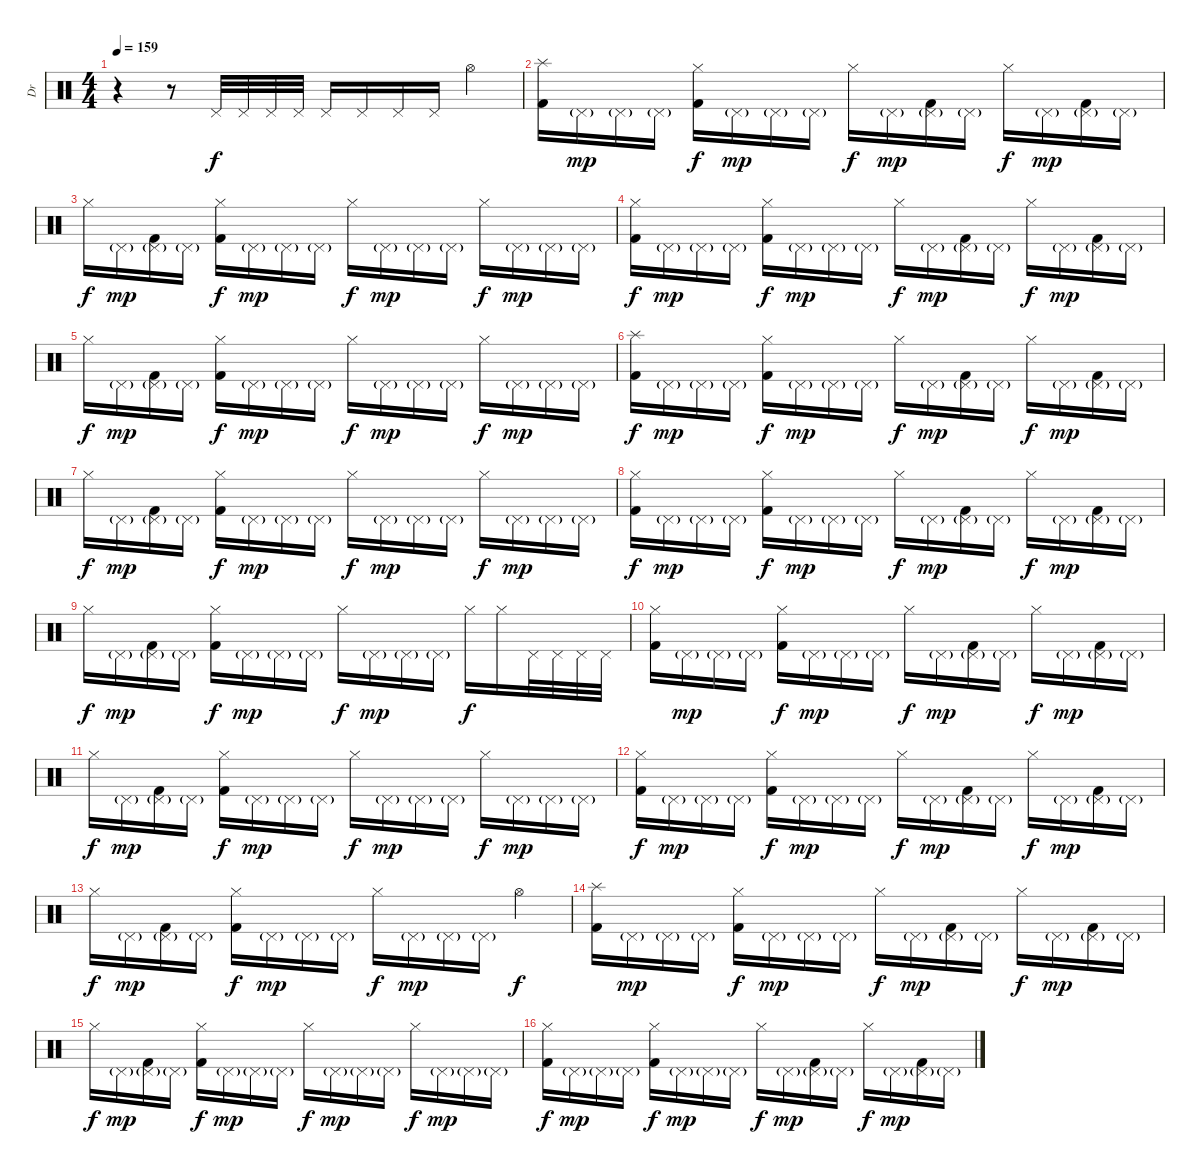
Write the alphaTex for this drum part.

\track ("Dr" "Dr") {instrument percussion}
\staff {score}
\articulation defaults
\ts (4 4)
\tempo 159
\clef neutral
\ks c
r.4{dy f} r.8 "Pedal Hi-Hat (hit)".32 "Pedal Hi-Hat (hit)".32 "Pedal Hi-Hat (hit)".32 "Pedal Hi-Hat (hit)".32 "Pedal Hi-Hat (hit)".16 "Pedal Hi-Hat (hit)".16 "Pedal Hi-Hat (hit)".16 "Pedal Hi-Hat (hit)".16 "Hi-Hat (open)".4 |
("Splash (hit)" "Kick (hit) 2").16 "Pedal Hi-Hat (hit)"{g}.16{dy mp} "Pedal Hi-Hat (hit)"{g}.16 "Pedal Hi-Hat (hit)"{g}.16 ("Hi-Hat (closed)" "Kick (hit) 2").16{dy f} "Pedal Hi-Hat (hit)"{g}.16{dy mp} "Pedal Hi-Hat (hit)"{g}.16 "Pedal Hi-Hat (hit)"{g}.16 "Hi-Hat (closed)".16{dy f} "Pedal Hi-Hat (hit)"{g}.16{dy mp} ("Pedal Hi-Hat (hit)"{g} "Kick (hit) 2").16 "Pedal Hi-Hat (hit)"{g}.16 "Hi-Hat (closed)".16{dy f} "Pedal Hi-Hat (hit)"{g}.16{dy mp} ("Pedal Hi-Hat (hit)"{g} "Kick (hit) 2").16 "Pedal Hi-Hat (hit)"{g}.16 |
"Hi-Hat (closed)".16{dy f} "Pedal Hi-Hat (hit)"{g}.16{dy mp} ("Pedal Hi-Hat (hit)"{g} "Kick (hit) 2").16 "Pedal Hi-Hat (hit)"{g}.16 ("Hi-Hat (closed)" "Kick (hit) 2").16{dy f} "Pedal Hi-Hat (hit)"{g}.16{dy mp} "Pedal Hi-Hat (hit)"{g}.16 "Pedal Hi-Hat (hit)"{g}.16 "Hi-Hat (closed)".16{dy f} "Pedal Hi-Hat (hit)"{g}.16{dy mp} "Pedal Hi-Hat (hit)"{g}.16 "Pedal Hi-Hat (hit)"{g}.16 "Hi-Hat (closed)".16{dy f} "Pedal Hi-Hat (hit)"{g}.16{dy mp} "Pedal Hi-Hat (hit)"{g}.16 "Pedal Hi-Hat (hit)"{g}.16 |
("Hi-Hat (closed)" "Kick (hit) 2").16{dy f} "Pedal Hi-Hat (hit)"{g}.16{dy mp} "Pedal Hi-Hat (hit)"{g}.16 "Pedal Hi-Hat (hit)"{g}.16 ("Hi-Hat (closed)" "Kick (hit) 2").16{dy f} "Pedal Hi-Hat (hit)"{g}.16{dy mp} "Pedal Hi-Hat (hit)"{g}.16 "Pedal Hi-Hat (hit)"{g}.16 "Hi-Hat (closed)".16{dy f} "Pedal Hi-Hat (hit)"{g}.16{dy mp} ("Pedal Hi-Hat (hit)"{g} "Kick (hit) 2").16 "Pedal Hi-Hat (hit)"{g}.16 "Hi-Hat (closed)".16{dy f} "Pedal Hi-Hat (hit)"{g}.16{dy mp} ("Pedal Hi-Hat (hit)"{g} "Kick (hit) 2").16 "Pedal Hi-Hat (hit)"{g}.16 |
"Hi-Hat (closed)".16{dy f} "Pedal Hi-Hat (hit)"{g}.16{dy mp} ("Pedal Hi-Hat (hit)"{g} "Kick (hit) 2").16 "Pedal Hi-Hat (hit)"{g}.16 ("Hi-Hat (closed)" "Kick (hit) 2").16{dy f} "Pedal Hi-Hat (hit)"{g}.16{dy mp} "Pedal Hi-Hat (hit)"{g}.16 "Pedal Hi-Hat (hit)"{g}.16 "Hi-Hat (closed)".16{dy f} "Pedal Hi-Hat (hit)"{g}.16{dy mp} "Pedal Hi-Hat (hit)"{g}.16 "Pedal Hi-Hat (hit)"{g}.16 "Hi-Hat (closed)".16{dy f} "Pedal Hi-Hat (hit)"{g}.16{dy mp} "Pedal Hi-Hat (hit)"{g}.16 "Pedal Hi-Hat (hit)"{g}.16 |
("Splash (hit)" "Kick (hit) 2").16{dy f} "Pedal Hi-Hat (hit)"{g}.16{dy mp} "Pedal Hi-Hat (hit)"{g}.16 "Pedal Hi-Hat (hit)"{g}.16 ("Hi-Hat (closed)" "Kick (hit) 2").16{dy f} "Pedal Hi-Hat (hit)"{g}.16{dy mp} "Pedal Hi-Hat (hit)"{g}.16 "Pedal Hi-Hat (hit)"{g}.16 "Hi-Hat (closed)".16{dy f} "Pedal Hi-Hat (hit)"{g}.16{dy mp} ("Pedal Hi-Hat (hit)"{g} "Kick (hit) 2").16 "Pedal Hi-Hat (hit)"{g}.16 "Hi-Hat (closed)".16{dy f} "Pedal Hi-Hat (hit)"{g}.16{dy mp} ("Pedal Hi-Hat (hit)"{g} "Kick (hit) 2").16 "Pedal Hi-Hat (hit)"{g}.16 |
"Hi-Hat (closed)".16{dy f} "Pedal Hi-Hat (hit)"{g}.16{dy mp} ("Pedal Hi-Hat (hit)"{g} "Kick (hit) 2").16 "Pedal Hi-Hat (hit)"{g}.16 ("Hi-Hat (closed)" "Kick (hit) 2").16{dy f} "Pedal Hi-Hat (hit)"{g}.16{dy mp} "Pedal Hi-Hat (hit)"{g}.16 "Pedal Hi-Hat (hit)"{g}.16 "Hi-Hat (closed)".16{dy f} "Pedal Hi-Hat (hit)"{g}.16{dy mp} "Pedal Hi-Hat (hit)"{g}.16 "Pedal Hi-Hat (hit)"{g}.16 "Hi-Hat (closed)".16{dy f} "Pedal Hi-Hat (hit)"{g}.16{dy mp} "Pedal Hi-Hat (hit)"{g}.16 "Pedal Hi-Hat (hit)"{g}.16 |
("Hi-Hat (closed)" "Kick (hit) 2").16{dy f} "Pedal Hi-Hat (hit)"{g}.16{dy mp} "Pedal Hi-Hat (hit)"{g}.16 "Pedal Hi-Hat (hit)"{g}.16 ("Hi-Hat (closed)" "Kick (hit) 2").16{dy f} "Pedal Hi-Hat (hit)"{g}.16{dy mp} "Pedal Hi-Hat (hit)"{g}.16 "Pedal Hi-Hat (hit)"{g}.16 "Hi-Hat (closed)".16{dy f} "Pedal Hi-Hat (hit)"{g}.16{dy mp} ("Pedal Hi-Hat (hit)"{g} "Kick (hit) 2").16 "Pedal Hi-Hat (hit)"{g}.16 "Hi-Hat (closed)".16{dy f} "Pedal Hi-Hat (hit)"{g}.16{dy mp} ("Pedal Hi-Hat (hit)"{g} "Kick (hit) 2").16 "Pedal Hi-Hat (hit)"{g}.16 |
"Hi-Hat (closed)".16{dy f} "Pedal Hi-Hat (hit)"{g}.16{dy mp} ("Pedal Hi-Hat (hit)"{g} "Kick (hit) 2").16 "Pedal Hi-Hat (hit)"{g}.16 ("Hi-Hat (closed)" "Kick (hit) 2").16{dy f} "Pedal Hi-Hat (hit)"{g}.16{dy mp} "Pedal Hi-Hat (hit)"{g}.16 "Pedal Hi-Hat (hit)"{g}.16 "Hi-Hat (closed)".16{dy f} "Pedal Hi-Hat (hit)"{g}.16{dy mp} "Pedal Hi-Hat (hit)"{g}.16 "Pedal Hi-Hat (hit)"{g}.16 "Hi-Hat (closed)".16{dy f} "Hi-Hat (closed)".16 "Pedal Hi-Hat (hit)".32 "Pedal Hi-Hat (hit)".32 "Pedal Hi-Hat (hit)".32 "Pedal Hi-Hat (hit)".32 |
("Hi-Hat (closed)" "Kick (hit) 2").16 "Pedal Hi-Hat (hit)"{g}.16{dy mp} "Pedal Hi-Hat (hit)"{g}.16 "Pedal Hi-Hat (hit)"{g}.16 ("Hi-Hat (closed)" "Kick (hit) 2").16{dy f} "Pedal Hi-Hat (hit)"{g}.16{dy mp} "Pedal Hi-Hat (hit)"{g}.16 "Pedal Hi-Hat (hit)"{g}.16 "Hi-Hat (closed)".16{dy f} "Pedal Hi-Hat (hit)"{g}.16{dy mp} ("Pedal Hi-Hat (hit)"{g} "Kick (hit) 2").16 "Pedal Hi-Hat (hit)"{g}.16 "Hi-Hat (closed)".16{dy f} "Pedal Hi-Hat (hit)"{g}.16{dy mp} ("Pedal Hi-Hat (hit)"{g} "Kick (hit) 2").16 "Pedal Hi-Hat (hit)"{g}.16 |
"Hi-Hat (closed)".16{dy f} "Pedal Hi-Hat (hit)"{g}.16{dy mp} ("Pedal Hi-Hat (hit)"{g} "Kick (hit) 2").16 "Pedal Hi-Hat (hit)"{g}.16 ("Hi-Hat (closed)" "Kick (hit) 2").16{dy f} "Pedal Hi-Hat (hit)"{g}.16{dy mp} "Pedal Hi-Hat (hit)"{g}.16 "Pedal Hi-Hat (hit)"{g}.16 "Hi-Hat (closed)".16{dy f} "Pedal Hi-Hat (hit)"{g}.16{dy mp} "Pedal Hi-Hat (hit)"{g}.16 "Pedal Hi-Hat (hit)"{g}.16 "Hi-Hat (closed)".16{dy f} "Pedal Hi-Hat (hit)"{g}.16{dy mp} "Pedal Hi-Hat (hit)"{g}.16 "Pedal Hi-Hat (hit)"{g}.16 |
("Hi-Hat (closed)" "Kick (hit) 2").16{dy f} "Pedal Hi-Hat (hit)"{g}.16{dy mp} "Pedal Hi-Hat (hit)"{g}.16 "Pedal Hi-Hat (hit)"{g}.16 ("Hi-Hat (closed)" "Kick (hit) 2").16{dy f} "Pedal Hi-Hat (hit)"{g}.16{dy mp} "Pedal Hi-Hat (hit)"{g}.16 "Pedal Hi-Hat (hit)"{g}.16 "Hi-Hat (closed)".16{dy f} "Pedal Hi-Hat (hit)"{g}.16{dy mp} ("Pedal Hi-Hat (hit)"{g} "Kick (hit) 2").16 "Pedal Hi-Hat (hit)"{g}.16 "Hi-Hat (closed)".16{dy f} "Pedal Hi-Hat (hit)"{g}.16{dy mp} ("Pedal Hi-Hat (hit)"{g} "Kick (hit) 2").16 "Pedal Hi-Hat (hit)"{g}.16 |
"Hi-Hat (closed)".16{dy f} "Pedal Hi-Hat (hit)"{g}.16{dy mp} ("Pedal Hi-Hat (hit)"{g} "Kick (hit) 2").16 "Pedal Hi-Hat (hit)"{g}.16 ("Hi-Hat (closed)" "Kick (hit) 2").16{dy f} "Pedal Hi-Hat (hit)"{g}.16{dy mp} "Pedal Hi-Hat (hit)"{g}.16 "Pedal Hi-Hat (hit)"{g}.16 "Hi-Hat (closed)".16{dy f} "Pedal Hi-Hat (hit)"{g}.16{dy mp} "Pedal Hi-Hat (hit)"{g}.16 "Pedal Hi-Hat (hit)"{g}.16 "Hi-Hat (open)".4{dy f} |
("Splash (hit)" "Kick (hit) 2").16 "Pedal Hi-Hat (hit)"{g}.16{dy mp} "Pedal Hi-Hat (hit)"{g}.16 "Pedal Hi-Hat (hit)"{g}.16 ("Hi-Hat (closed)" "Kick (hit) 2").16{dy f} "Pedal Hi-Hat (hit)"{g}.16{dy mp} "Pedal Hi-Hat (hit)"{g}.16 "Pedal Hi-Hat (hit)"{g}.16 "Hi-Hat (closed)".16{dy f} "Pedal Hi-Hat (hit)"{g}.16{dy mp} ("Pedal Hi-Hat (hit)"{g} "Kick (hit) 2").16 "Pedal Hi-Hat (hit)"{g}.16 "Hi-Hat (closed)".16{dy f} "Pedal Hi-Hat (hit)"{g}.16{dy mp} ("Pedal Hi-Hat (hit)"{g} "Kick (hit) 2").16 "Pedal Hi-Hat (hit)"{g}.16 |
"Hi-Hat (closed)".16{dy f} "Pedal Hi-Hat (hit)"{g}.16{dy mp} ("Pedal Hi-Hat (hit)"{g} "Kick (hit) 2").16 "Pedal Hi-Hat (hit)"{g}.16 ("Hi-Hat (closed)" "Kick (hit) 2").16{dy f} "Pedal Hi-Hat (hit)"{g}.16{dy mp} "Pedal Hi-Hat (hit)"{g}.16 "Pedal Hi-Hat (hit)"{g}.16 "Hi-Hat (closed)".16{dy f} "Pedal Hi-Hat (hit)"{g}.16{dy mp} "Pedal Hi-Hat (hit)"{g}.16 "Pedal Hi-Hat (hit)"{g}.16 "Hi-Hat (closed)".16{dy f} "Pedal Hi-Hat (hit)"{g}.16{dy mp} "Pedal Hi-Hat (hit)"{g}.16 "Pedal Hi-Hat (hit)"{g}.16 |
("Hi-Hat (closed)" "Kick (hit) 2").16{dy f} "Pedal Hi-Hat (hit)"{g}.16{dy mp} "Pedal Hi-Hat (hit)"{g}.16 "Pedal Hi-Hat (hit)"{g}.16 ("Hi-Hat (closed)" "Kick (hit) 2").16{dy f} "Pedal Hi-Hat (hit)"{g}.16{dy mp} "Pedal Hi-Hat (hit)"{g}.16 "Pedal Hi-Hat (hit)"{g}.16 "Hi-Hat (closed)".16{dy f} "Pedal Hi-Hat (hit)"{g}.16{dy mp} ("Pedal Hi-Hat (hit)"{g} "Kick (hit) 2").16 "Pedal Hi-Hat (hit)"{g}.16 "Hi-Hat (closed)".16{dy f} "Pedal Hi-Hat (hit)"{g}.16{dy mp} ("Pedal Hi-Hat (hit)"{g} "Kick (hit) 2").16 "Pedal Hi-Hat (hit)"{g}.16
